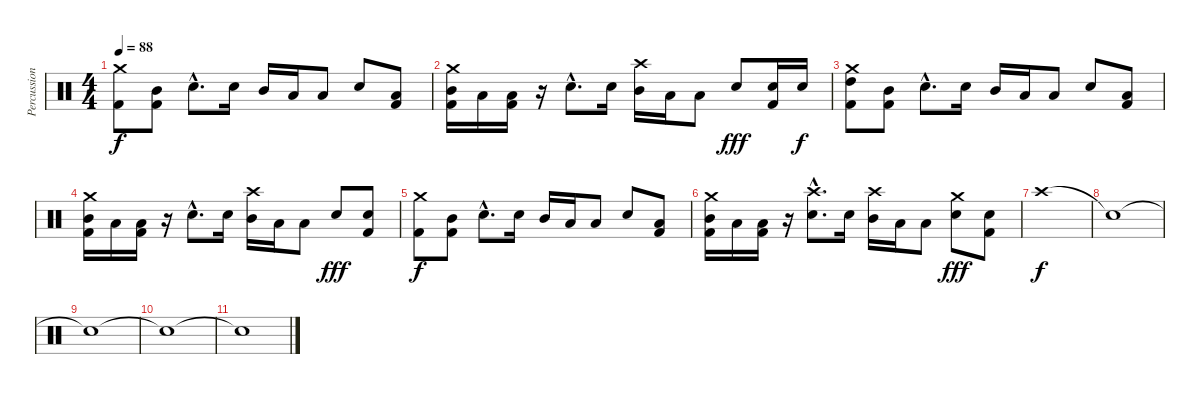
\track ("Percussion" "Percussion") {instrument percussion}
\staff {score}
\articulation defaults
\ts (4 4)
\tempo 88
\clef neutral
\ks c
("Crash medium (hit)" "Kick (hit) 2").8{dy f} ("Mid Tom (hit)" "Kick (hit) 2").8 "Snare (hit) 2"{hac}.8{d} "Snare (hit) 2".16 "Mid Tom (hit)".16 "Low Tom (hit)".16 "Low Tom (hit)".8 "Snare (hit) 2".8 ("Low Tom (hit)" "Kick (hit) 2").8 |
("Crash medium (hit)" "Mid Tom (hit)" "Kick (hit) 2").16 "Low Tom (hit)".16 ("Low Tom (hit)" "Kick (hit) 2").16 r.16 "Snare (hit) 2"{hac}.8{d} "Snare (hit) 2".16 ("Crash high (hit)" "Mid Tom (hit)").16 "Low Tom (hit)".16 "Low Tom (hit)".8 "Snare (hit) 2".8{dy fff} ("Snare (hit) 2" "Kick (hit) 2").16 "Snare (hit) 2".16{dy f} |
("Crash medium (hit)" "High Tom (hit)" "Kick (hit) 2").8 ("Mid Tom (hit)" "Kick (hit) 2").8 "Snare (hit) 2"{hac}.8{d} "Snare (hit) 2".16 "Mid Tom (hit)".16 "Low Tom (hit)".16 "Low Tom (hit)".8 "Snare (hit) 2".8 ("Low Tom (hit)" "Kick (hit) 2").8 |
("Crash medium (hit)" "Mid Tom (hit)" "Kick (hit) 2").16 "Low Tom (hit)".16 ("Low Tom (hit)" "Kick (hit) 2").16 r.16 "Snare (hit) 2"{hac}.8{d} "Snare (hit) 2".16 ("Crash high (hit)" "Mid Tom (hit)").16 "Low Tom (hit)".16 "Low Tom (hit)".8 "Snare (hit) 2".8{dy fff} ("Snare (hit) 2" "Kick (hit) 2").8 |
("Crash medium (hit)" "Kick (hit) 2").8{dy f} ("Mid Tom (hit)" "Kick (hit) 2").8 "Snare (hit) 2"{hac}.8{d} "Snare (hit) 2".16 "Mid Tom (hit)".16 "Low Tom (hit)".16 "Low Tom (hit)".8 "Snare (hit) 2".8 ("Low Tom (hit)" "Kick (hit) 2").8 |
("Crash medium (hit)" "Mid Tom (hit)" "Kick (hit) 2").16 "Low Tom (hit)".16 ("Low Tom (hit)" "Kick (hit) 2").16 r.16 ("Crash high (hit)"{hac} "Snare (hit) 2"{hac}).8{d} "Snare (hit) 2".16 ("Crash high (hit)" "Mid Tom (hit)").16 "Low Tom (hit)".16 "Low Tom (hit)".8 ("Crash medium (hit)" "Snare (hit) 2").8{dy fff} ("Snare (hit) 2" "Kick (hit) 2").8 |
"Crash high (hit)".1{dy f} |
"Snare (hit)"{t}.1 |
"Snare (hit)"{t}.1 |
"Snare (hit)"{t}.1 |
"Snare (hit)"{t}.1
